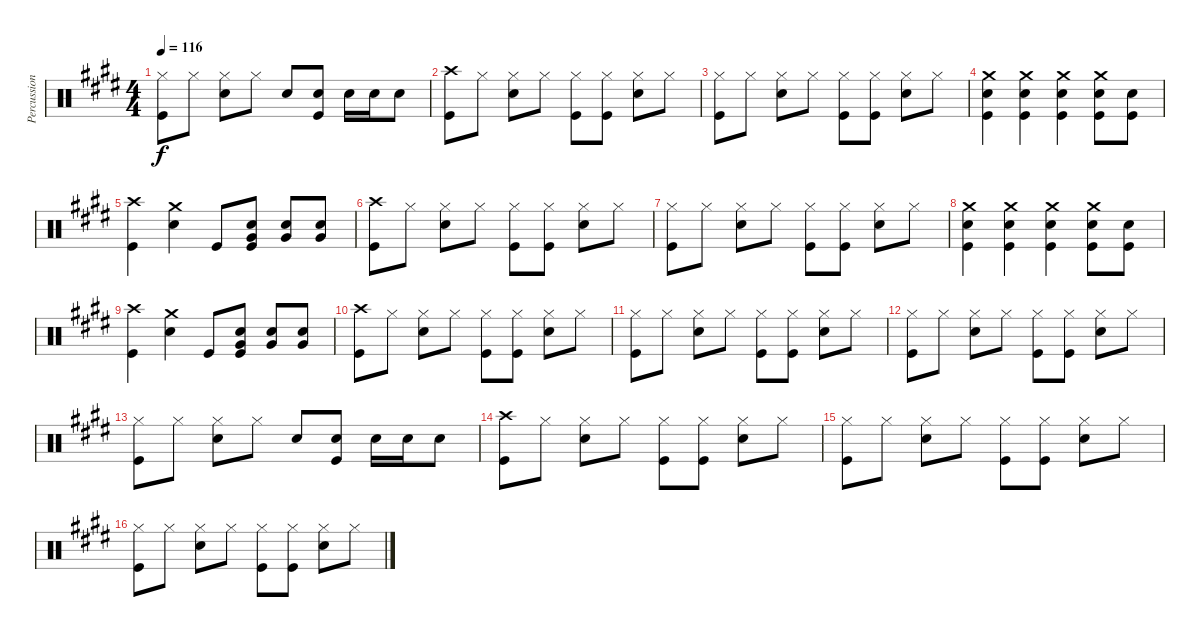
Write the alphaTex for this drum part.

\track ("Percussion" "Percussion") {instrument percussion}
\staff {score}
\articulation defaults
\ts (4 4)
\tempo 116
\clef neutral
\ks e
("Hi-Hat (closed)" "Kick (hit)").8{dy f} "Hi-Hat (closed)".8 ("Hi-Hat (closed)" "Snare (hit) 2").8 "Hi-Hat (closed)".8 "Snare (hit) 2".8 ("Snare (hit) 2" "Kick (hit)").8 "Snare (hit) 2".16 "Snare (hit) 2".16 "Snare (hit) 2".8 |
("Crash high (hit)" "Kick (hit)").8 "Hi-Hat (closed)".8 ("Hi-Hat (closed)" "Snare (hit) 2").8 "Hi-Hat (closed)".8 ("Hi-Hat (closed)" "Kick (hit)").8 ("Hi-Hat (closed)" "Kick (hit)").8 ("Hi-Hat (closed)" "Snare (hit) 2").8 "Hi-Hat (closed)".8 |
("Hi-Hat (closed)" "Kick (hit)").8 "Hi-Hat (closed)".8 ("Hi-Hat (closed)" "Snare (hit) 2").8 "Hi-Hat (closed)".8 ("Hi-Hat (closed)" "Kick (hit)").8 ("Hi-Hat (closed)" "Kick (hit)").8 ("Hi-Hat (closed)" "Snare (hit) 2").8 "Hi-Hat (closed)".8 |
("Crash medium (hit)" "Snare (hit) 2" "Kick (hit)").4 ("Crash medium (hit)" "Snare (hit) 2" "Kick (hit)").4 ("Crash medium (hit)" "Snare (hit) 2" "Kick (hit)").4 ("Crash medium (hit)" "Snare (hit) 2" "Kick (hit)").8 ("Snare (hit) 2" "Kick (hit)").8 |
("Crash high (hit)" "Kick (hit)").4 ("Crash medium (hit)" "Snare (hit) 2").4 "Kick (hit)".8 ("Very Low Tom (hit)" "Snare (hit) 2" "Kick (hit)").8 ("Very Low Tom (hit)" "Snare (hit) 2").8 ("Very Low Tom (hit)" "Snare (hit) 2").8 |
("Crash high (hit)" "Kick (hit)").8 "Hi-Hat (closed)".8 ("Hi-Hat (closed)" "Snare (hit) 2").8 "Hi-Hat (closed)".8 ("Hi-Hat (closed)" "Kick (hit)").8 ("Hi-Hat (closed)" "Kick (hit)").8 ("Hi-Hat (closed)" "Snare (hit) 2").8 "Hi-Hat (closed)".8 |
("Hi-Hat (closed)" "Kick (hit)").8 "Hi-Hat (closed)".8 ("Hi-Hat (closed)" "Snare (hit) 2").8 "Hi-Hat (closed)".8 ("Hi-Hat (closed)" "Kick (hit)").8 ("Hi-Hat (closed)" "Kick (hit)").8 ("Hi-Hat (closed)" "Snare (hit) 2").8 "Hi-Hat (closed)".8 |
("Crash medium (hit)" "Snare (hit) 2" "Kick (hit)").4 ("Crash medium (hit)" "Snare (hit) 2" "Kick (hit)").4 ("Crash medium (hit)" "Snare (hit) 2" "Kick (hit)").4 ("Crash medium (hit)" "Snare (hit) 2" "Kick (hit)").8 ("Snare (hit) 2" "Kick (hit)").8 |
("Crash high (hit)" "Kick (hit)").4 ("Crash medium (hit)" "Snare (hit) 2").4 "Kick (hit)".8 ("Very Low Tom (hit)" "Snare (hit) 2" "Kick (hit)").8 ("Very Low Tom (hit)" "Snare (hit) 2").8 ("Very Low Tom (hit)" "Snare (hit) 2").8 |
("Crash high (hit)" "Kick (hit)").8 "Hi-Hat (closed)".8 ("Hi-Hat (closed)" "Snare (hit) 2").8 "Hi-Hat (closed)".8 ("Hi-Hat (closed)" "Kick (hit)").8 ("Hi-Hat (closed)" "Kick (hit)").8 ("Hi-Hat (closed)" "Snare (hit) 2").8 "Hi-Hat (closed)".8 |
("Hi-Hat (closed)" "Kick (hit)").8 "Hi-Hat (closed)".8 ("Hi-Hat (closed)" "Snare (hit) 2").8 "Hi-Hat (closed)".8 ("Hi-Hat (closed)" "Kick (hit)").8 ("Hi-Hat (closed)" "Kick (hit)").8 ("Hi-Hat (closed)" "Snare (hit) 2").8 "Hi-Hat (closed)".8 |
("Hi-Hat (closed)" "Kick (hit)").8 "Hi-Hat (closed)".8 ("Hi-Hat (closed)" "Snare (hit) 2").8 "Hi-Hat (closed)".8 ("Hi-Hat (closed)" "Kick (hit)").8 ("Hi-Hat (closed)" "Kick (hit)").8 ("Hi-Hat (closed)" "Snare (hit) 2").8 "Hi-Hat (closed)".8 |
("Hi-Hat (closed)" "Kick (hit)").8 "Hi-Hat (closed)".8 ("Hi-Hat (closed)" "Snare (hit) 2").8 "Hi-Hat (closed)".8 "Snare (hit) 2".8 ("Snare (hit) 2" "Kick (hit)").8 "Snare (hit) 2".16 "Snare (hit) 2".16 "Snare (hit) 2".8 |
("Crash high (hit)" "Kick (hit)").8 "Hi-Hat (closed)".8 ("Hi-Hat (closed)" "Snare (hit) 2").8 "Hi-Hat (closed)".8 ("Hi-Hat (closed)" "Kick (hit)").8 ("Hi-Hat (closed)" "Kick (hit)").8 ("Hi-Hat (closed)" "Snare (hit) 2").8 "Hi-Hat (closed)".8 |
("Hi-Hat (closed)" "Kick (hit)").8 "Hi-Hat (closed)".8 ("Hi-Hat (closed)" "Snare (hit) 2").8 "Hi-Hat (closed)".8 ("Hi-Hat (closed)" "Kick (hit)").8 ("Hi-Hat (closed)" "Kick (hit)").8 ("Hi-Hat (closed)" "Snare (hit) 2").8 "Hi-Hat (closed)".8 |
("Hi-Hat (closed)" "Kick (hit)").8 "Hi-Hat (closed)".8 ("Hi-Hat (closed)" "Snare (hit) 2").8 "Hi-Hat (closed)".8 ("Hi-Hat (closed)" "Kick (hit)").8 ("Hi-Hat (closed)" "Kick (hit)").8 ("Hi-Hat (closed)" "Snare (hit) 2").8 "Hi-Hat (closed)".8
